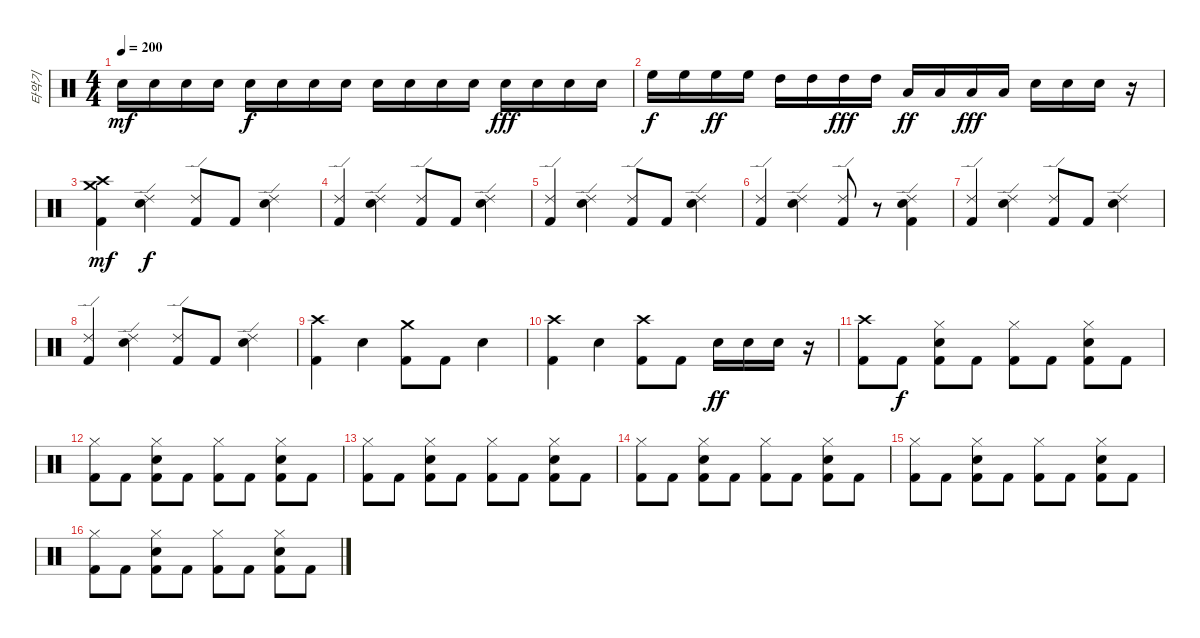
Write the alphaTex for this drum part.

\track ("타악기" "타악기") {instrument percussion}
\staff {score}
\articulation defaults
\ts (4 4)
\tempo 200
\clef neutral
\ks c "Snare (hit) 2".16{dy mf} "Snare (hit) 2".16 "Snare (hit) 2".16 "Snare (hit) 2".16 "Snare (hit) 2".16{dy f} "Snare (hit) 2".16 "Snare (hit) 2".16 "Snare (hit) 2".16 "Snare (hit) 2".16 "Snare (hit) 2".16 "Snare (hit) 2".16 "Snare (hit) 2".16 "Snare (hit) 2".16{dy fff} "Snare (hit) 2".16 "Snare (hit) 2".16 "Snare (hit) 2".16
|
"High Floor Tom (hit)".16{dy f} "High Floor Tom (hit)".16 "High Floor Tom (hit)".16{dy ff} "High Floor Tom (hit)".16 "High Tom (hit)".16 "High Tom (hit)".16 "High Tom (hit)".16{dy fff} "High Tom (hit)".16 "Low Tom (hit)".16{dy ff} "Low Tom (hit)".16 "Low Tom (hit)".16{dy fff} "Low Tom (hit)".16 "Snare (hit) 2".16 "Snare (hit) 2".16 "Snare (hit) 2".16 r.16 |
("Crash high (hit)" "Crash medium (hit)" "Kick (hit) 2").4{dy mf} ("Ride (edge) 2" "Snare (hit) 2").4{dy f} ("Ride (edge) 2" "Kick (hit) 2").8 "Kick (hit) 2".8 ("Ride (edge) 2" "Snare (hit) 2").4 |
("Ride (edge) 2" "Kick (hit) 2").4 ("Ride (edge) 2" "Snare (hit) 2").4 ("Ride (edge) 2" "Kick (hit) 2").8 "Kick (hit) 2".8 ("Ride (edge) 2" "Snare (hit) 2").4 |
("Ride (edge) 2" "Kick (hit) 2").4 ("Ride (edge) 2" "Snare (hit) 2").4 ("Ride (edge) 2" "Kick (hit) 2").8 "Kick (hit) 2".8 ("Ride (edge) 2" "Snare (hit) 2").4 |
("Ride (edge) 2" "Kick (hit) 2").4 ("Ride (edge) 2" "Snare (hit) 2").4 ("Ride (edge) 2" "Kick (hit) 2").8 r.8 ("Ride (edge) 2" "Snare (hit) 2" "Kick (hit) 2").4 |
("Ride (edge) 2" "Kick (hit) 2").4 ("Ride (edge) 2" "Snare (hit) 2").4 ("Ride (edge) 2" "Kick (hit) 2").8 "Kick (hit) 2".8 ("Ride (edge) 2" "Snare (hit) 2").4 |
("Ride (edge) 2" "Kick (hit) 2").4 ("Ride (edge) 2" "Snare (hit) 2").4 ("Ride (edge) 2" "Kick (hit) 2").8 "Kick (hit) 2".8 ("Ride (edge) 2" "Snare (hit) 2").4 |
("Crash high (hit)" "Kick (hit) 2").4 "Snare (hit) 2".4 ("Crash medium (hit)" "Kick (hit) 2").8 "Kick (hit) 2".8 "Snare (hit) 2".4 |
("Crash high (hit)" "Kick (hit) 2").4 "Snare (hit) 2".4 ("Crash high (hit)" "Kick (hit) 2").8 "Kick (hit) 2".8 "Snare (hit) 2".16{dy ff} "Snare (hit) 2".16 "Snare (hit) 2".16 r.16 |
("Crash high (hit)" "Kick (hit) 2").8 "Kick (hit) 2".8{dy f} ("Hi-Hat (closed)" "Snare (hit) 2" "Kick (hit) 2").8 "Kick (hit) 2".8 ("Hi-Hat (closed)" "Kick (hit) 2").8 "Kick (hit) 2".8 ("Hi-Hat (closed)" "Snare (hit) 2" "Kick (hit) 2").8 "Kick (hit) 2".8 |
("Hi-Hat (closed)" "Kick (hit) 2").8 "Kick (hit) 2".8 ("Hi-Hat (closed)" "Snare (hit) 2" "Kick (hit) 2").8 "Kick (hit) 2".8 ("Hi-Hat (closed)" "Kick (hit) 2").8 "Kick (hit) 2".8 ("Hi-Hat (closed)" "Snare (hit) 2" "Kick (hit) 2").8 "Kick (hit) 2".8 |
("Hi-Hat (closed)" "Kick (hit) 2").8 "Kick (hit) 2".8 ("Hi-Hat (closed)" "Snare (hit) 2" "Kick (hit) 2").8 "Kick (hit) 2".8 ("Hi-Hat (closed)" "Kick (hit) 2").8 "Kick (hit) 2".8 ("Hi-Hat (closed)" "Snare (hit) 2" "Kick (hit) 2").8 "Kick (hit) 2".8 |
("Hi-Hat (closed)" "Kick (hit) 2").8 "Kick (hit) 2".8 ("Hi-Hat (closed)" "Snare (hit) 2" "Kick (hit) 2").8 "Kick (hit) 2".8 ("Hi-Hat (closed)" "Kick (hit) 2").8 "Kick (hit) 2".8 ("Hi-Hat (closed)" "Snare (hit) 2" "Kick (hit) 2").8 "Kick (hit) 2".8 |
("Hi-Hat (closed)" "Kick (hit) 2").8 "Kick (hit) 2".8 ("Hi-Hat (closed)" "Snare (hit) 2" "Kick (hit) 2").8 "Kick (hit) 2".8 ("Hi-Hat (closed)" "Kick (hit) 2").8 "Kick (hit) 2".8 ("Hi-Hat (closed)" "Snare (hit) 2" "Kick (hit) 2").8 "Kick (hit) 2".8 |
("Hi-Hat (closed)" "Kick (hit) 2").8 "Kick (hit) 2".8 ("Hi-Hat (closed)" "Snare (hit) 2" "Kick (hit) 2").8 "Kick (hit) 2".8 ("Hi-Hat (closed)" "Kick (hit) 2").8 "Kick (hit) 2".8 ("Hi-Hat (closed)" "Snare (hit) 2" "Kick (hit) 2").8 "Kick (hit) 2".8
